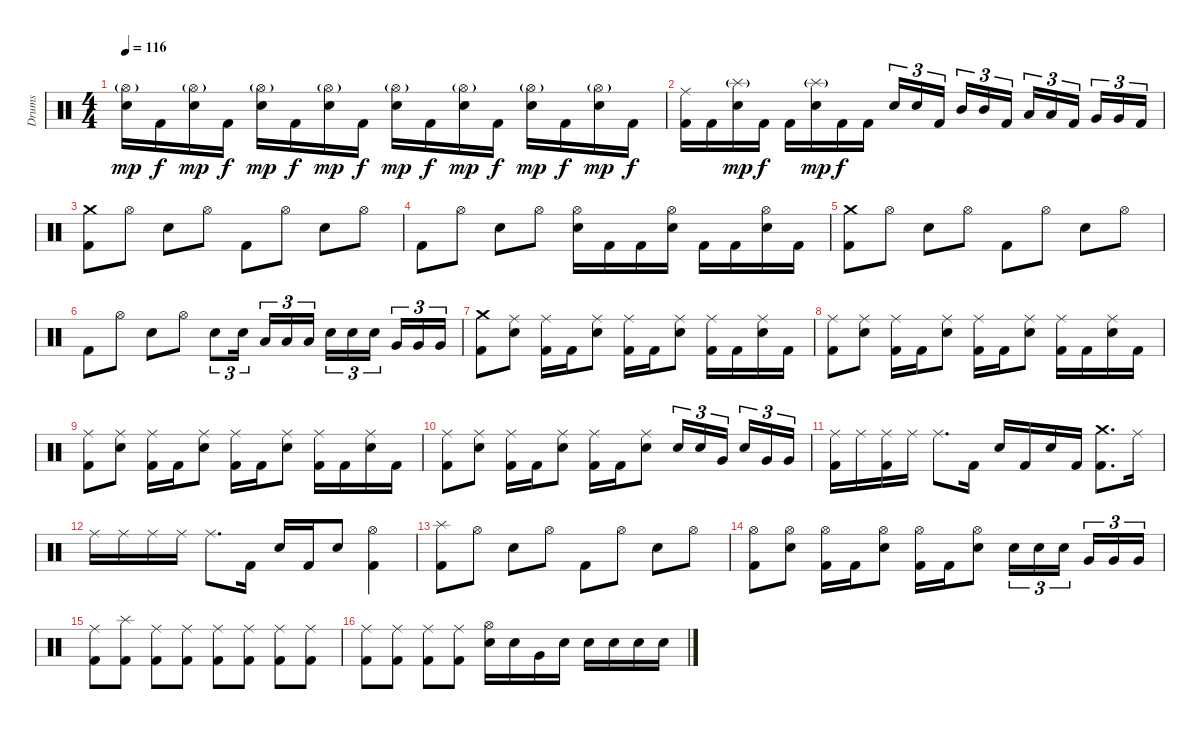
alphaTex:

\track ("Drums" "Drums") {instrument percussion}
\staff {score}
\articulation defaults
\ts (4 4)
\tempo 116
\clef neutral
\ks c
("Hi-Hat (open)"{g} "Electric Snare (hit)").16{dy mp} "Kick (hit) 2".16{dy f} ("Hi-Hat (open)"{g} "Electric Snare (hit)").16{dy mp} "Kick (hit) 2".16{dy f} ("Hi-Hat (open)"{g} "Electric Snare (hit)").16{dy mp} "Kick (hit) 2".16{dy f} ("Hi-Hat (open)"{g} "Electric Snare (hit)").16{dy mp} "Kick (hit) 2".16{dy f} ("Hi-Hat (open)"{g} "Electric Snare (hit)").16{dy mp} "Kick (hit) 2".16{dy f} ("Hi-Hat (open)"{g} "Electric Snare (hit)").16{dy mp} "Kick (hit) 2".16{dy f} ("Hi-Hat (open)"{g} "Electric Snare (hit)").16{dy mp} "Kick (hit) 2".16{dy f} ("Hi-Hat (open)"{g} "Electric Snare (hit)").16{dy mp} "Kick (hit) 2".16{dy f} |
("Ride (middle)" "Kick (hit) 2").16 "Kick (hit) 2".16 ("Splash (hit)"{g} "Electric Snare (hit)").16{dy mp} "Kick (hit) 2".16{dy f} "Kick (hit) 2".16 ("Splash (hit)"{g} "Electric Snare (hit)").16{dy mp} "Kick (hit) 2".16{dy f} "Kick (hit) 2".16 "Electric Snare (hit)".16{tu (3 2)} "Electric Snare (hit)".16{tu (3 2)} "Kick (hit) 2".16{tu (3 2) beam splitsecondary} "Mid Tom (hit)".16{tu (3 2)} "Mid Tom (hit)".16{tu (3 2)} "Kick (hit) 2".16{tu (3 2)} "Low Tom (hit)".16{tu (3 2)} "Low Tom (hit)".16{tu (3 2)} "Kick (hit) 2".16{tu (3 2) beam splitsecondary} "Very Low Tom (hit)".16{tu (3 2)} "Very Low Tom (hit)".16{tu (3 2)} "Kick (hit) 2".16{tu (3 2)} |
("Crash medium (hit)" "Kick (hit) 2").8 "Hi-Hat (open)".8 "Electric Snare (hit)".8 "Hi-Hat (open)".8 "Kick (hit) 2".8 "Hi-Hat (open)".8 "Electric Snare (hit)".8 "Hi-Hat (open)".8 |
"Kick (hit) 2".8 "Hi-Hat (open)".8 "Electric Snare (hit)".8 "Hi-Hat (open)".8 ("Hi-Hat (open)" "Electric Snare (hit)").16 "Kick (hit) 2".16 "Kick (hit) 2".16 ("Hi-Hat (open)" "Electric Snare (hit)").16 "Kick (hit) 2".16 "Kick (hit) 2".16 ("Hi-Hat (open)" "Electric Snare (hit)").16 "Kick (hit) 2".16 |
("Crash medium (hit)" "Kick (hit) 2").8 "Hi-Hat (open)".8 "Electric Snare (hit)".8 "Hi-Hat (open)".8 "Kick (hit) 2".8 "Hi-Hat (open)".8 "Electric Snare (hit)".8 "Hi-Hat (open)".8 |
"Kick (hit) 2".8 "Hi-Hat (open)".8 "Electric Snare (hit)".8 "Hi-Hat (open)".8 "Electric Snare (hit)".8{tu (3 2)} "Electric Snare (hit)".16{tu (3 2) beam splitsecondary} "Low Tom (hit)".16{tu (3 2)} "Low Tom (hit)".16{tu (3 2)} "Low Tom (hit)".16{tu (3 2)} "Electric Snare (hit)".16{tu (3 2)} "Electric Snare (hit)".16{tu (3 2)} "Electric Snare (hit)".16{tu (3 2) beam splitsecondary} "Very Low Tom (hit)".16{tu (3 2)} "Very Low Tom (hit)".16{tu (3 2)} "Very Low Tom (hit)".16{tu (3 2)} |
("Crash medium (hit)" "Kick (hit) 2").8 ("Ride (middle)" "Electric Snare (hit)").8 ("Ride (middle)" "Kick (hit) 2").16 "Kick (hit) 2".16 ("Ride (middle)" "Electric Snare (hit)").8 ("Ride (middle)" "Kick (hit) 2").16 "Kick (hit) 2".16 ("Ride (middle)" "Electric Snare (hit)").8 ("Ride (middle)" "Kick (hit) 2").16 "Kick (hit) 2".16 ("Ride (middle)" "Electric Snare (hit)").16 "Kick (hit) 2".16 |
("Ride (middle)" "Kick (hit) 2").8 ("Ride (middle)" "Electric Snare (hit)").8 ("Ride (middle)" "Kick (hit) 2").16 "Kick (hit) 2".16 ("Ride (middle)" "Electric Snare (hit)").8 ("Ride (middle)" "Kick (hit) 2").16 "Kick (hit) 2".16 ("Ride (middle)" "Electric Snare (hit)").8 ("Ride (middle)" "Kick (hit) 2").16 "Kick (hit) 2".16 ("Ride (middle)" "Electric Snare (hit)").16 "Kick (hit) 2".16 |
("Ride (middle)" "Kick (hit) 2").8 ("Ride (middle)" "Electric Snare (hit)").8 ("Ride (middle)" "Kick (hit) 2").16 "Kick (hit) 2".16 ("Ride (middle)" "Electric Snare (hit)").8 ("Ride (middle)" "Kick (hit) 2").16 "Kick (hit) 2".16 ("Ride (middle)" "Electric Snare (hit)").8 ("Ride (middle)" "Kick (hit) 2").16 "Kick (hit) 2".16 ("Ride (middle)" "Electric Snare (hit)").16 "Kick (hit) 2".16 |
("Ride (middle)" "Kick (hit) 2").8 ("Ride (middle)" "Electric Snare (hit)").8 ("Ride (middle)" "Kick (hit) 2").16 "Kick (hit) 2".16 ("Ride (middle)" "Electric Snare (hit)").8 ("Ride (middle)" "Kick (hit) 2").16 "Kick (hit) 2".16 ("Ride (middle)" "Electric Snare (hit)").8 "Electric Snare (hit)".16{tu (3 2)} "Electric Snare (hit)".16{tu (3 2)} "Very Low Tom (hit)".16{tu (3 2) beam splitsecondary} "Electric Snare (hit)".16{tu (3 2)} "Very Low Tom (hit)".16{tu (3 2)} "Very Low Tom (hit)".16{tu (3 2)} |
("Ride (middle)" "Kick (hit) 2").16 "Ride (middle)".16 ("Ride (middle)" "Kick (hit) 2").16 "Ride (middle)".16 "Ride (middle)".8{d} "Kick (hit) 2".16 "Electric Snare (hit)".16 "Kick (hit) 2".16 "Electric Snare (hit)".16 "Kick (hit) 2".16 ("Crash medium (hit)" "Kick (hit) 2").8{d} "Ride (middle)".16 |
"Ride (middle)".16 "Ride (middle)".16 "Ride (middle)".16 "Ride (middle)".16 "Ride (middle)".8{d} "Kick (hit) 2".16 "Electric Snare (hit)".16 "Kick (hit) 2".16 "Electric Snare (hit)".8 ("Hi-Hat (open)" "Kick (hit) 2").4 |
("Splash (hit)" "Kick (hit) 2").8 "Hi-Hat (open)".8 "Electric Snare (hit)".8 "Hi-Hat (open)".8 "Kick (hit) 2".8 "Hi-Hat (open)".8 "Electric Snare (hit)".8 "Hi-Hat (open)".8 |
("Hi-Hat (open)" "Kick (hit) 2").8 ("Hi-Hat (open)" "Electric Snare (hit)").8 ("Hi-Hat (open)" "Kick (hit) 2").16 "Kick (hit) 2".16 ("Hi-Hat (open)" "Electric Snare (hit)").8 ("Hi-Hat (open)" "Kick (hit) 2").16 "Kick (hit) 2".16 ("Hi-Hat (open)" "Electric Snare (hit)").8 "Electric Snare (hit)".16{tu (3 2)} "Electric Snare (hit)".16{tu (3 2)} "Electric Snare (hit)".16{tu (3 2) beam splitsecondary} "Very Low Tom (hit)".16{tu (3 2)} "Very Low Tom (hit)".16{tu (3 2)} "Very Low Tom (hit)".16{tu (3 2)} |
("Ride (middle)" "Kick (hit) 2").8 ("Splash (hit)" "Kick (hit) 2").8 ("Ride (middle)" "Kick (hit) 2").8 ("Ride (middle)" "Kick (hit) 2").8 ("Ride (middle)" "Kick (hit) 2").8 ("Ride (middle)" "Kick (hit) 2").8 ("Ride (middle)" "Kick (hit) 2").8 ("Ride (middle)" "Kick (hit) 2").8 |
("Ride (middle)" "Kick (hit) 2").8 ("Ride (middle)" "Kick (hit) 2").8 ("Ride (middle)" "Kick (hit) 2").8 ("Ride (middle)" "Kick (hit) 2").8 ("Hi-Hat (open)" "Electric Snare (hit)").16 "Electric Snare (hit)".16 "Very Low Tom (hit)".16 "Electric Snare (hit)".16 "Electric Snare (hit)".16 "Electric Snare (hit)".16 "Electric Snare (hit)".16 "Electric Snare (hit)".16
